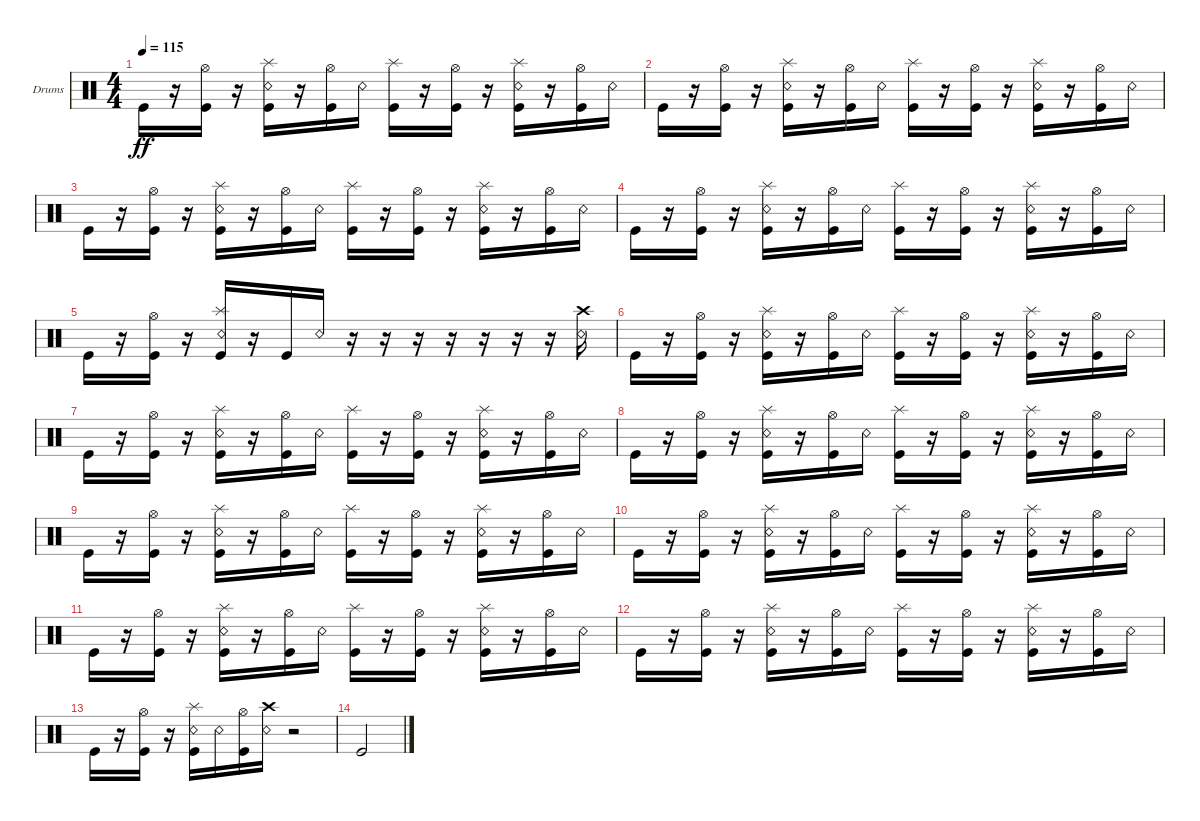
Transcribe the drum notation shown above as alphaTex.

\bracketExtendMode groupsimilarinstruments
\firstSystemTrackNameOrientation horizontal
\otherSystemsTrackNameOrientation horizontal
\track ("Drumkit" "Drums") {instrument percussion}
\staff {score}
\articulation defaults
\ts (4 4)
\tempo 115
\clef neutral
\ks c "Kick (hit)".16{dy ff}
r.16 ("Kick (hit)" "Hi-Hat (open)").16 r.16 ("Kick (hit)" "Splash (hit)" "Snare (rim shot)").16 r.16 ("Kick (hit)" "Hi-Hat (open)").16 "Snare (rim shot)".16 ("Kick (hit)" "Splash (hit)").16 r.16 ("Kick (hit)" "Hi-Hat (open)").16 r.16 ("Kick (hit)" "Splash (hit)" "Snare (rim shot)").16 r.16 ("Kick (hit)" "Hi-Hat (open)").16 "Snare (rim shot)".16 |
"Kick (hit)".16 r.16 ("Kick (hit)" "Hi-Hat (open)").16 r.16 ("Kick (hit)" "Splash (hit)" "Snare (rim shot)").16 r.16 ("Kick (hit)" "Hi-Hat (open)").16 "Snare (rim shot)".16 ("Kick (hit)" "Splash (hit)").16 r.16 ("Kick (hit)" "Hi-Hat (open)").16 r.16 ("Kick (hit)" "Splash (hit)" "Snare (rim shot)").16 r.16 ("Kick (hit)" "Hi-Hat (open)").16 "Snare (rim shot)".16 |
"Kick (hit)".16 r.16 ("Kick (hit)" "Hi-Hat (open)").16 r.16 ("Kick (hit)" "Splash (hit)" "Snare (rim shot)").16 r.16 ("Kick (hit)" "Hi-Hat (open)").16 "Snare (rim shot)".16 ("Kick (hit)" "Splash (hit)").16 r.16 ("Kick (hit)" "Hi-Hat (open)").16 r.16 ("Kick (hit)" "Splash (hit)" "Snare (rim shot)").16 r.16 ("Kick (hit)" "Hi-Hat (open)").16 "Snare (rim shot)".16 |
"Kick (hit)".16 r.16 ("Kick (hit)" "Hi-Hat (open)").16 r.16 ("Kick (hit)" "Splash (hit)" "Snare (rim shot)").16 r.16 ("Kick (hit)" "Hi-Hat (open)").16 "Snare (rim shot)".16 ("Kick (hit)" "Splash (hit)").16 r.16 ("Kick (hit)" "Hi-Hat (open)").16 r.16 ("Kick (hit)" "Splash (hit)" "Snare (rim shot)").16 r.16 ("Kick (hit)" "Hi-Hat (open)").16 "Snare (rim shot)".16 |
"Kick (hit)".16 r.16 ("Kick (hit)" "Hi-Hat (open)").16 r.16 ("Kick (hit)" "Splash (hit)" "Snare (rim shot)").16 r.16 "Kick (hit)".16 "Snare (rim shot)".16 r.16 r.16 r.16 r.16 r.16 r.16 r.16 ("Snare (rim shot)" "Crash high (hit)").16 |
"Kick (hit)".16 r.16 ("Kick (hit)" "Hi-Hat (open)").16 r.16 ("Kick (hit)" "Splash (hit)" "Snare (rim shot)").16 r.16 ("Kick (hit)" "Hi-Hat (open)").16 "Snare (rim shot)".16 ("Kick (hit)" "Splash (hit)").16 r.16 ("Kick (hit)" "Hi-Hat (open)").16 r.16 ("Kick (hit)" "Splash (hit)" "Snare (rim shot)").16 r.16 ("Kick (hit)" "Hi-Hat (open)").16 "Snare (rim shot)".16 |
"Kick (hit)".16 r.16 ("Kick (hit)" "Hi-Hat (open)").16 r.16 ("Kick (hit)" "Splash (hit)" "Snare (rim shot)").16 r.16 ("Kick (hit)" "Hi-Hat (open)").16 "Snare (rim shot)".16 ("Kick (hit)" "Splash (hit)").16 r.16 ("Kick (hit)" "Hi-Hat (open)").16 r.16 ("Kick (hit)" "Splash (hit)" "Snare (rim shot)").16 r.16 ("Kick (hit)" "Hi-Hat (open)").16 "Snare (rim shot)".16 |
"Kick (hit)".16 r.16 ("Kick (hit)" "Hi-Hat (open)").16 r.16 ("Kick (hit)" "Splash (hit)" "Snare (rim shot)").16 r.16 ("Kick (hit)" "Hi-Hat (open)").16 "Snare (rim shot)".16 ("Kick (hit)" "Splash (hit)").16 r.16 ("Kick (hit)" "Hi-Hat (open)").16 r.16 ("Kick (hit)" "Splash (hit)" "Snare (rim shot)").16 r.16 ("Kick (hit)" "Hi-Hat (open)").16 "Snare (rim shot)".16 |
"Kick (hit)".16 r.16 ("Kick (hit)" "Hi-Hat (open)").16 r.16 ("Kick (hit)" "Splash (hit)" "Snare (rim shot)").16 r.16 ("Kick (hit)" "Hi-Hat (open)").16 "Snare (rim shot)".16 ("Kick (hit)" "Splash (hit)").16 r.16 ("Kick (hit)" "Hi-Hat (open)").16 r.16 ("Kick (hit)" "Splash (hit)" "Snare (rim shot)").16 r.16 ("Kick (hit)" "Hi-Hat (open)").16 "Snare (rim shot)".16 |
"Kick (hit)".16 r.16 ("Kick (hit)" "Hi-Hat (open)").16 r.16 ("Kick (hit)" "Splash (hit)" "Snare (rim shot)").16 r.16 ("Kick (hit)" "Hi-Hat (open)").16 "Snare (rim shot)".16 ("Kick (hit)" "Splash (hit)").16 r.16 ("Kick (hit)" "Hi-Hat (open)").16 r.16 ("Kick (hit)" "Splash (hit)" "Snare (rim shot)").16 r.16 ("Kick (hit)" "Hi-Hat (open)").16 "Snare (rim shot)".16 |
"Kick (hit)".16 r.16 ("Kick (hit)" "Hi-Hat (open)").16 r.16 ("Kick (hit)" "Splash (hit)" "Snare (rim shot)").16 r.16 ("Kick (hit)" "Hi-Hat (open)").16 "Snare (rim shot)".16 ("Kick (hit)" "Splash (hit)").16 r.16 ("Kick (hit)" "Hi-Hat (open)").16 r.16 ("Kick (hit)" "Splash (hit)" "Snare (rim shot)").16 r.16 ("Kick (hit)" "Hi-Hat (open)").16 "Snare (rim shot)".16 |
"Kick (hit)".16 r.16 ("Kick (hit)" "Hi-Hat (open)").16 r.16 ("Kick (hit)" "Splash (hit)" "Snare (rim shot)").16 r.16 ("Kick (hit)" "Hi-Hat (open)").16 "Snare (rim shot)".16 ("Kick (hit)" "Splash (hit)").16 r.16 ("Kick (hit)" "Hi-Hat (open)").16 r.16 ("Kick (hit)" "Splash (hit)" "Snare (rim shot)").16 r.16 ("Kick (hit)" "Hi-Hat (open)").16 "Snare (rim shot)".16 |
"Kick (hit)".16 r.16 ("Kick (hit)" "Hi-Hat (open)").16 r.16 ("Kick (hit)" "Splash (hit)" "Snare (rim shot)").16 "Snare (rim shot)".16 ("Kick (hit)" "Hi-Hat (open)").16 ("Snare (rim shot)" "Crash high (hit)").16 r.2 |
"Kick (hit)".2
